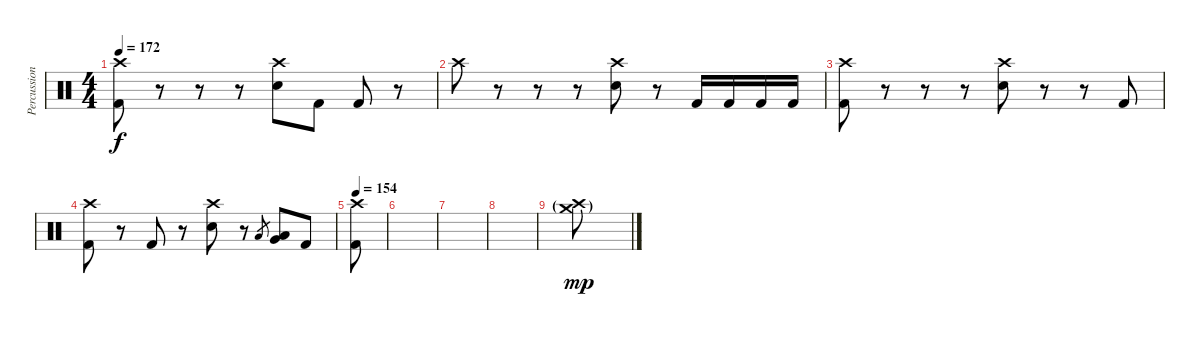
\track ("Percussion" "Percussion") {instrument percussion}
\staff {score}
\articulation defaults
\ts (4 4)
\tempo 172
\clef neutral
\ks c
("Crash high (hit)" "Kick (hit) 2").8{dy f} r.8 r.8 r.8 ("Crash high (hit)" "Snare (hit) 2").8 "Kick (hit) 2".8 "Kick (hit) 2".8 r.8 |
"Crash high (hit)".8 r.8 r.8 r.8 ("Crash high (hit)" "Snare (hit) 2").8 r.8 "Kick (hit) 2".16 "Kick (hit) 2".16 "Kick (hit) 2".16 "Kick (hit) 2".16 |
("Crash high (hit)" "Kick (hit) 2").8 r.8 r.8 r.8 ("Crash high (hit)" "Snare (hit) 2").8 r.8 r.8 "Kick (hit) 2".8 |
("Crash high (hit)" "Kick (hit) 2").8 r.8 "Kick (hit) 2".8 r.8 ("Crash high (hit)" "Snare (hit) 2").8 r.8 "Low Tom (hit)".8{gr} ("Very Low Tom (hit)" "Low Tom (hit)").8 "Kick (hit) 2".8 |
\tempo 154
("Crash high (hit)" "Kick (hit) 2").8 |
|
|
|
("Crash medium (hit)"{g} "Crash high (hit)"{g}).8{dy mp}
